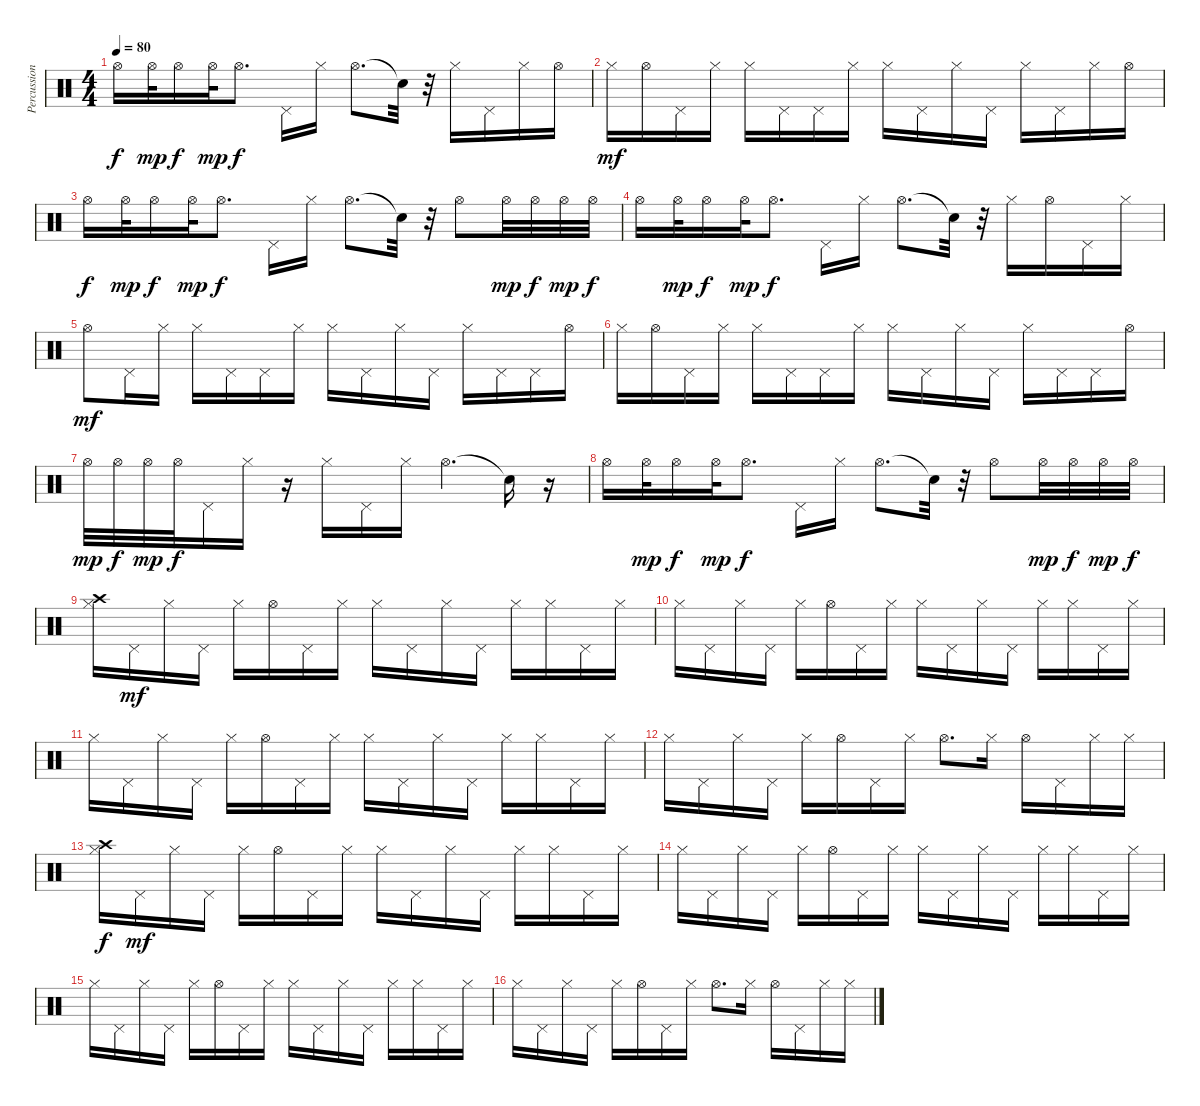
\track ("Percussion" "Percussion") {instrument percussion}
\staff {score}
\articulation defaults
\ts (4 4)
\tempo 80
\clef neutral
\ks c "Hi-Hat (open)".16{dy f} "Hi-Hat (open)".32{dy mp} "Hi-Hat (open)".16{dy f} "Hi-Hat (open)".32{dy mp} "Hi-Hat (open)".8{d dy f} "Pedal Hi-Hat (hit)".16 "Hi-Hat (closed)".16 "Hi-Hat (open)".8{d} "Snare (hit)"{t}.32
r.32 "Hi-Hat (closed)".16 "Pedal Hi-Hat (hit)".16 "Hi-Hat (closed)".16 "Hi-Hat (open)".16 |
"Hi-Hat (closed)".16{dy mf} "Hi-Hat (open)".16 "Pedal Hi-Hat (hit)".16 "Hi-Hat (closed)".16 "Hi-Hat (closed)".16 "Pedal Hi-Hat (hit)".16 "Pedal Hi-Hat (hit)".16 "Hi-Hat (closed)".16 "Hi-Hat (closed)".16 "Pedal Hi-Hat (hit)".16 "Hi-Hat (closed)".16 "Pedal Hi-Hat (hit)".16 "Hi-Hat (closed)".16 "Pedal Hi-Hat (hit)".16 "Hi-Hat (closed)".16 "Hi-Hat (open)".16 |
"Hi-Hat (open)".16{dy f} "Hi-Hat (open)".32{dy mp} "Hi-Hat (open)".16{dy f} "Hi-Hat (open)".32{dy mp} "Hi-Hat (open)".8{d dy f} "Pedal Hi-Hat (hit)".16 "Hi-Hat (closed)".16 "Hi-Hat (open)".8{d} "Snare (hit)"{t}.32 r.32 "Hi-Hat (open)".8 "Hi-Hat (open)".32{dy mp} "Hi-Hat (open)".32{dy f} "Hi-Hat (open)".32{dy mp} "Hi-Hat (open)".32{dy f} |
"Hi-Hat (open)".16 "Hi-Hat (open)".32{dy mp} "Hi-Hat (open)".16{dy f} "Hi-Hat (open)".32{dy mp} "Hi-Hat (open)".8{d dy f} "Pedal Hi-Hat (hit)".16 "Hi-Hat (closed)".16 "Hi-Hat (open)".8{d} "Snare (hit)"{t}.32 r.32 "Hi-Hat (closed)".16 "Hi-Hat (open)".16 "Pedal Hi-Hat (hit)".16 "Hi-Hat (closed)".16 |
"Hi-Hat (open)".8{dy mf} "Pedal Hi-Hat (hit)".16 "Hi-Hat (closed)".16 "Hi-Hat (closed)".16 "Pedal Hi-Hat (hit)".16 "Pedal Hi-Hat (hit)".16 "Hi-Hat (closed)".16 "Hi-Hat (closed)".16 "Pedal Hi-Hat (hit)".16 "Hi-Hat (closed)".16 "Pedal Hi-Hat (hit)".16 "Hi-Hat (closed)".16 "Pedal Hi-Hat (hit)".16 "Pedal Hi-Hat (hit)".16 "Hi-Hat (open)".16 |
"Hi-Hat (closed)".16 "Hi-Hat (open)".16 "Pedal Hi-Hat (hit)".16 "Hi-Hat (closed)".16 "Hi-Hat (closed)".16 "Pedal Hi-Hat (hit)".16 "Pedal Hi-Hat (hit)".16 "Hi-Hat (closed)".16 "Hi-Hat (closed)".16 "Pedal Hi-Hat (hit)".16 "Hi-Hat (closed)".16 "Pedal Hi-Hat (hit)".16 "Hi-Hat (closed)".16 "Pedal Hi-Hat (hit)".16 "Pedal Hi-Hat (hit)".16 "Hi-Hat (open)".16 |
"Hi-Hat (open)".32{dy mp} "Hi-Hat (open)".32{dy f} "Hi-Hat (open)".32{dy mp} "Hi-Hat (open)".32{dy f} "Pedal Hi-Hat (hit)".16 "Hi-Hat (closed)".16 r.16 "Hi-Hat (closed)".16 "Pedal Hi-Hat (hit)".16 "Hi-Hat (closed)".16 "Hi-Hat (open)".4{d} "Snare (hit)"{t}.16 r.16 |
"Hi-Hat (open)".16 "Hi-Hat (open)".32{dy mp} "Hi-Hat (open)".16{dy f} "Hi-Hat (open)".32{dy mp} "Hi-Hat (open)".8{d dy f} "Pedal Hi-Hat (hit)".16 "Hi-Hat (closed)".16 "Hi-Hat (open)".8{d} "Snare (hit)"{t}.32 r.32 "Hi-Hat (open)".8 "Hi-Hat (open)".32{dy mp} "Hi-Hat (open)".32{dy f} "Hi-Hat (open)".32{dy mp} "Hi-Hat (open)".32{dy f} |
("Hi-Hat (closed)" "Crash high (hit)").16 "Pedal Hi-Hat (hit)".16{dy mf} "Hi-Hat (closed)".16 "Pedal Hi-Hat (hit)".16 "Hi-Hat (closed)".16 "Hi-Hat (open)".16 "Pedal Hi-Hat (hit)".16 "Hi-Hat (closed)".16 "Hi-Hat (closed)".16 "Pedal Hi-Hat (hit)".16 "Hi-Hat (closed)".16 "Pedal Hi-Hat (hit)".16 "Hi-Hat (closed)".16 "Hi-Hat (closed)".16 "Pedal Hi-Hat (hit)".16 "Hi-Hat (closed)".16 |
"Hi-Hat (closed)".16 "Pedal Hi-Hat (hit)".16 "Hi-Hat (closed)".16 "Pedal Hi-Hat (hit)".16 "Hi-Hat (closed)".16 "Hi-Hat (open)".16 "Pedal Hi-Hat (hit)".16 "Hi-Hat (closed)".16 "Hi-Hat (closed)".16 "Pedal Hi-Hat (hit)".16 "Hi-Hat (closed)".16 "Pedal Hi-Hat (hit)".16 "Hi-Hat (closed)".16 "Hi-Hat (closed)".16 "Pedal Hi-Hat (hit)".16 "Hi-Hat (closed)".16 |
"Hi-Hat (closed)".16 "Pedal Hi-Hat (hit)".16 "Hi-Hat (closed)".16 "Pedal Hi-Hat (hit)".16 "Hi-Hat (closed)".16 "Hi-Hat (open)".16 "Pedal Hi-Hat (hit)".16 "Hi-Hat (closed)".16 "Hi-Hat (closed)".16 "Pedal Hi-Hat (hit)".16 "Hi-Hat (closed)".16 "Pedal Hi-Hat (hit)".16 "Hi-Hat (closed)".16 "Hi-Hat (closed)".16 "Pedal Hi-Hat (hit)".16 "Hi-Hat (closed)".16 |
"Hi-Hat (closed)".16 "Pedal Hi-Hat (hit)".16 "Hi-Hat (closed)".16 "Pedal Hi-Hat (hit)".16 "Hi-Hat (closed)".16 "Hi-Hat (open)".16 "Pedal Hi-Hat (hit)".16 "Hi-Hat (closed)".16 "Hi-Hat (open)".8{d} "Hi-Hat (closed)".16 "Hi-Hat (open)".16 "Pedal Hi-Hat (hit)".16 "Hi-Hat (closed)".16 "Hi-Hat (closed)".16 |
("Hi-Hat (closed)" "Crash high (hit)").16{dy f} "Pedal Hi-Hat (hit)".16{dy mf} "Hi-Hat (closed)".16 "Pedal Hi-Hat (hit)".16 "Hi-Hat (closed)".16 "Hi-Hat (open)".16 "Pedal Hi-Hat (hit)".16 "Hi-Hat (closed)".16 "Hi-Hat (closed)".16 "Pedal Hi-Hat (hit)".16 "Hi-Hat (closed)".16 "Pedal Hi-Hat (hit)".16 "Hi-Hat (closed)".16 "Hi-Hat (closed)".16 "Pedal Hi-Hat (hit)".16 "Hi-Hat (closed)".16 |
"Hi-Hat (closed)".16 "Pedal Hi-Hat (hit)".16 "Hi-Hat (closed)".16 "Pedal Hi-Hat (hit)".16 "Hi-Hat (closed)".16 "Hi-Hat (open)".16 "Pedal Hi-Hat (hit)".16 "Hi-Hat (closed)".16 "Hi-Hat (closed)".16 "Pedal Hi-Hat (hit)".16 "Hi-Hat (closed)".16 "Pedal Hi-Hat (hit)".16 "Hi-Hat (closed)".16 "Hi-Hat (closed)".16 "Pedal Hi-Hat (hit)".16 "Hi-Hat (closed)".16 |
"Hi-Hat (closed)".16 "Pedal Hi-Hat (hit)".16 "Hi-Hat (closed)".16 "Pedal Hi-Hat (hit)".16 "Hi-Hat (closed)".16 "Hi-Hat (open)".16 "Pedal Hi-Hat (hit)".16 "Hi-Hat (closed)".16 "Hi-Hat (closed)".16 "Pedal Hi-Hat (hit)".16 "Hi-Hat (closed)".16 "Pedal Hi-Hat (hit)".16 "Hi-Hat (closed)".16 "Hi-Hat (closed)".16 "Pedal Hi-Hat (hit)".16 "Hi-Hat (closed)".16 |
"Hi-Hat (closed)".16 "Pedal Hi-Hat (hit)".16 "Hi-Hat (closed)".16 "Pedal Hi-Hat (hit)".16 "Hi-Hat (closed)".16 "Hi-Hat (open)".16 "Pedal Hi-Hat (hit)".16 "Hi-Hat (closed)".16 "Hi-Hat (open)".8{d} "Hi-Hat (closed)".16 "Hi-Hat (open)".16 "Pedal Hi-Hat (hit)".16 "Hi-Hat (closed)".16 "Hi-Hat (closed)".16
